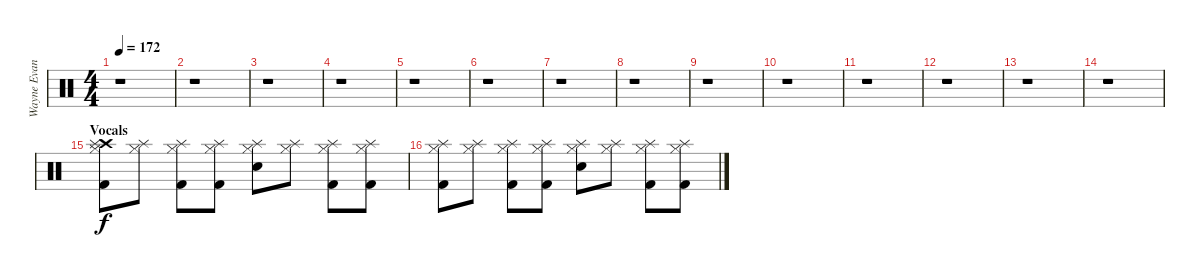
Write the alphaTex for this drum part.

\track ("Wayne Evans  " "Wayne Evan") {instrument percussion}
\staff {score}
\articulation defaults
\ts (4 4)
\tempo 172
\clef neutral
\ks c
r.1{dy f} |
r.1 |
r.1 |
r.1 |
r.1 |
r.1 |
r.1 |
r.1 |
r.1 |
r.1 |
r.1 |
r.1 |
r.1 |
r.1 |
\section ("" "Vocals")
("Crash high (hit)" "Splash (hit)" "Hi-Hat (closed)" "Kick (hit) 2").8 ("Splash (hit)" "Hi-Hat (closed)").8 ("Splash (hit)" "Hi-Hat (closed)" "Kick (hit) 2").8 ("Splash (hit)" "Hi-Hat (closed)" "Kick (hit) 2").8 ("Splash (hit)" "Hi-Hat (closed)" "Electric Snare (hit)").8 ("Splash (hit)" "Hi-Hat (closed)").8 ("Splash (hit)" "Hi-Hat (closed)" "Kick (hit) 2").8 ("Splash (hit)" "Hi-Hat (closed)" "Kick (hit) 2").8 |
("Splash (hit)" "Hi-Hat (closed)" "Kick (hit) 2").8 ("Splash (hit)" "Hi-Hat (closed)").8 ("Splash (hit)" "Hi-Hat (closed)" "Kick (hit) 2").8 ("Splash (hit)" "Hi-Hat (closed)" "Kick (hit) 2").8 ("Splash (hit)" "Hi-Hat (closed)" "Electric Snare (hit)").8 ("Splash (hit)" "Hi-Hat (closed)").8 ("Splash (hit)" "Hi-Hat (closed)" "Kick (hit) 2").8 ("Splash (hit)" "Hi-Hat (closed)" "Kick (hit) 2").8
